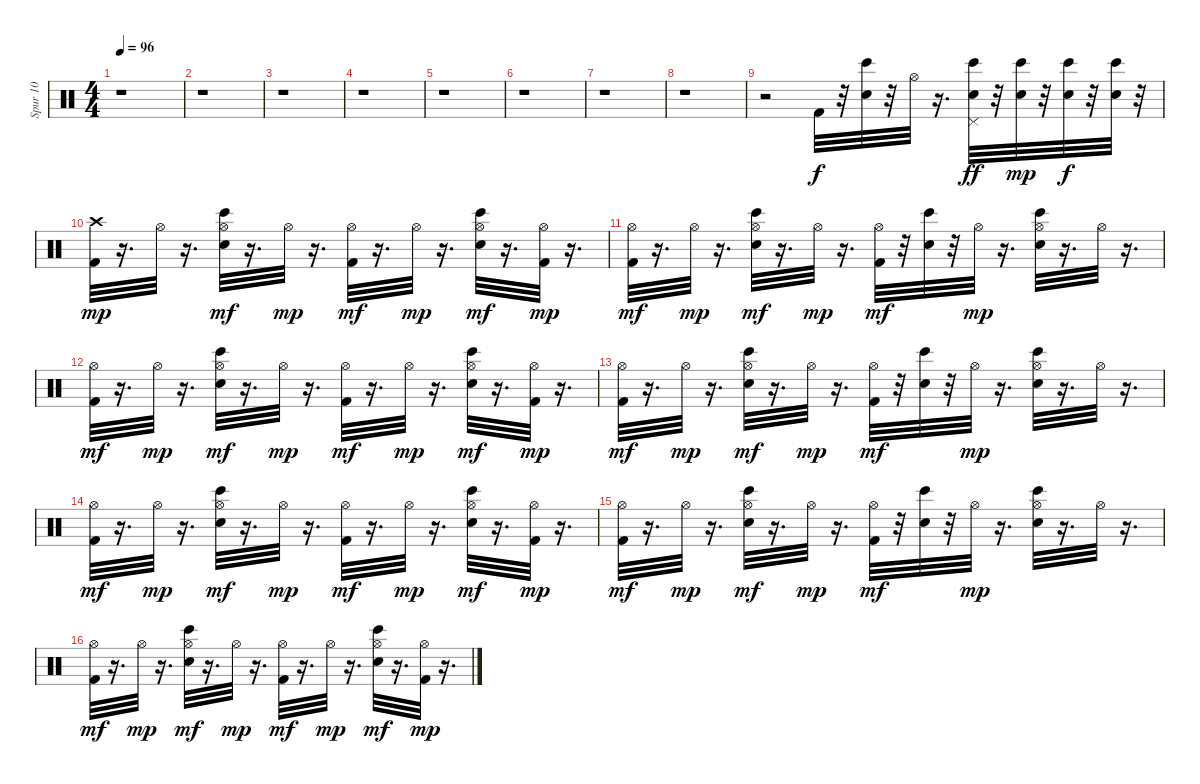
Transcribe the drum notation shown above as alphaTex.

\track ("Spur 10" "Spur 10") {instrument percussion}
\staff {score}
\articulation defaults
\ts (4 4)
\tempo 96
\clef neutral
\ks c
r.1{dy f} |
r.1 |
r.1 |
r.1 |
r.1 |
r.1 |
r.1 |
r.1 |
r.2 "Kick (hit) 2".32 r.32 ("Snare (hit) 2" "Bongo High (hit)").32 r.32 "Hi-Hat (open)".32 r.16{d} ("Pedal Hi-Hat (hit)" "Snare (hit) 2" "Bongo High (hit)").32{dy ff} r.32 ("Snare (hit) 2" "Bongo High (hit)").32{dy mp} r.32 ("Snare (hit) 2" "Bongo High (hit)").32{dy f} r.32 ("Snare (hit) 2" "Bongo High (hit)").32 r.32 |
("Crash high (hit)" "Kick (hit) 2").32{dy mp} r.16{d} "Hi-Hat (open)".32 r.16{d} ("Hi-Hat (open)" "Snare (hit) 2" "Bongo High (hit)").32{dy mf} r.16{d} "Hi-Hat (open)".32{dy mp} r.16{d} ("Hi-Hat (open)" "Kick (hit) 2").32{dy mf} r.16{d} "Hi-Hat (open)".32{dy mp} r.16{d} ("Hi-Hat (open)" "Snare (hit) 2" "Bongo High (hit)").32{dy mf} r.16{d} ("Hi-Hat (open)" "Kick (hit) 2").32{dy mp} r.16{d} |
("Hi-Hat (open)" "Kick (hit) 2").32{dy mf} r.16{d} "Hi-Hat (open)".32{dy mp} r.16{d} ("Hi-Hat (open)" "Snare (hit) 2" "Bongo High (hit)").32{dy mf} r.16{d} "Hi-Hat (open)".32{dy mp} r.16{d} ("Hi-Hat (open)" "Kick (hit) 2").32{dy mf} r.32 ("Snare (hit) 2" "Bongo High (hit)").32 r.32 "Hi-Hat (open)".32{dy mp} r.16{d} ("Hi-Hat (open)" "Snare (hit) 2" "Bongo High (hit)").32 r.16{d} "Hi-Hat (open)".32 r.16{d} |
("Hi-Hat (open)" "Kick (hit) 2").32{dy mf} r.16{d} "Hi-Hat (open)".32{dy mp} r.16{d} ("Hi-Hat (open)" "Snare (hit) 2" "Bongo High (hit)").32{dy mf} r.16{d} "Hi-Hat (open)".32{dy mp} r.16{d} ("Hi-Hat (open)" "Kick (hit) 2").32{dy mf} r.16{d} "Hi-Hat (open)".32{dy mp} r.16{d} ("Hi-Hat (open)" "Snare (hit) 2" "Bongo High (hit)").32{dy mf} r.16{d} ("Hi-Hat (open)" "Kick (hit) 2").32{dy mp} r.16{d} |
("Hi-Hat (open)" "Kick (hit) 2").32{dy mf} r.16{d} "Hi-Hat (open)".32{dy mp} r.16{d} ("Hi-Hat (open)" "Snare (hit) 2" "Bongo High (hit)").32{dy mf} r.16{d} "Hi-Hat (open)".32{dy mp} r.16{d} ("Hi-Hat (open)" "Kick (hit) 2").32{dy mf} r.32 ("Snare (hit) 2" "Bongo High (hit)").32 r.32 "Hi-Hat (open)".32{dy mp} r.16{d} ("Hi-Hat (open)" "Snare (hit) 2" "Bongo High (hit)").32 r.16{d} "Hi-Hat (open)".32 r.16{d} |
("Hi-Hat (open)" "Kick (hit) 2").32{dy mf} r.16{d} "Hi-Hat (open)".32{dy mp} r.16{d} ("Hi-Hat (open)" "Snare (hit) 2" "Bongo High (hit)").32{dy mf} r.16{d} "Hi-Hat (open)".32{dy mp} r.16{d} ("Hi-Hat (open)" "Kick (hit) 2").32{dy mf} r.16{d} "Hi-Hat (open)".32{dy mp} r.16{d} ("Hi-Hat (open)" "Snare (hit) 2" "Bongo High (hit)").32{dy mf} r.16{d} ("Hi-Hat (open)" "Kick (hit) 2").32{dy mp} r.16{d} |
("Hi-Hat (open)" "Kick (hit) 2").32{dy mf} r.16{d} "Hi-Hat (open)".32{dy mp} r.16{d} ("Hi-Hat (open)" "Snare (hit) 2" "Bongo High (hit)").32{dy mf} r.16{d} "Hi-Hat (open)".32{dy mp} r.16{d} ("Hi-Hat (open)" "Kick (hit) 2").32{dy mf} r.32 ("Snare (hit) 2" "Bongo High (hit)").32 r.32 "Hi-Hat (open)".32{dy mp} r.16{d} ("Hi-Hat (open)" "Snare (hit) 2" "Bongo High (hit)").32 r.16{d} "Hi-Hat (open)".32 r.16{d} |
("Hi-Hat (open)" "Kick (hit) 2").32{dy mf} r.16{d} "Hi-Hat (open)".32{dy mp} r.16{d} ("Hi-Hat (open)" "Snare (hit) 2" "Bongo High (hit)").32{dy mf} r.16{d} "Hi-Hat (open)".32{dy mp} r.16{d} ("Hi-Hat (open)" "Kick (hit) 2").32{dy mf} r.16{d} "Hi-Hat (open)".32{dy mp} r.16{d} ("Hi-Hat (open)" "Snare (hit) 2" "Bongo High (hit)").32{dy mf} r.16{d} ("Hi-Hat (open)" "Kick (hit) 2").32{dy mp} r.16{d}
